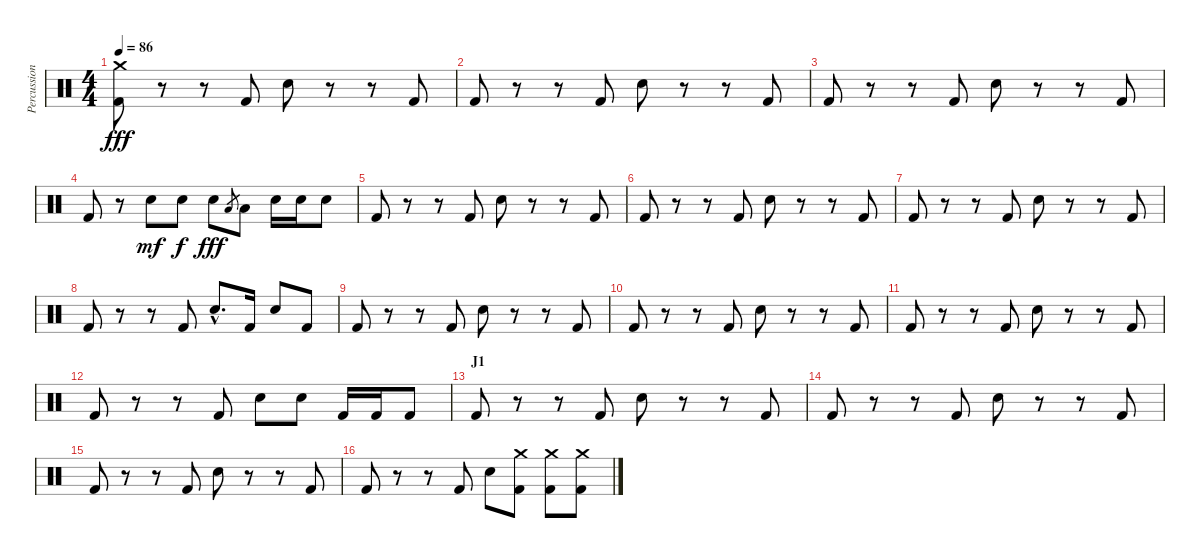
\track ("Percussion" "Percussion") {instrument percussion}
\staff {score}
\articulation defaults
\ts (4 4)
\tempo 86
\clef neutral
\ks c
("Kick (hit) 2" "Crash medium (hit)").8{dy fff} r.8 r.8 "Kick (hit) 2".8 "Electric Snare (hit)".8 r.8 r.8 "Kick (hit) 2".8 |
"Kick (hit) 2".8 r.8 r.8 "Kick (hit) 2".8 "Electric Snare (hit)".8 r.8 r.8 "Kick (hit) 2".8 |
"Kick (hit) 2".8 r.8 r.8 "Kick (hit) 2".8 "Electric Snare (hit)".8 r.8 r.8 "Kick (hit) 2".8 |
"Kick (hit) 2".8 r.8 "Electric Snare (hit)".8{dy mf} "Electric Snare (hit)".8{dy f} "Electric Snare (hit)".8{dy fff} "Low Tom (hit)".8{gr} "Low Tom (hit)".8 "Electric Snare (hit)".16 "Electric Snare (hit)".16 "Electric Snare (hit)".8 |
"Kick (hit) 2".8 r.8 r.8 "Kick (hit) 2".8 "Electric Snare (hit)".8 r.8 r.8 "Kick (hit) 2".8 |
"Kick (hit) 2".8 r.8 r.8 "Kick (hit) 2".8 "Electric Snare (hit)".8 r.8 r.8 "Kick (hit) 2".8 |
"Kick (hit) 2".8 r.8 r.8 "Kick (hit) 2".8 "Electric Snare (hit)".8 r.8 r.8 "Kick (hit) 2".8 |
"Kick (hit) 2".8 r.8 r.8 "Kick (hit) 2".8 "Electric Snare (hit)"{hac}.8{d} "Kick (hit) 2".16 "Electric Snare (hit)".8 "Kick (hit) 2".8 |
"Kick (hit) 2".8 r.8 r.8 "Kick (hit) 2".8 "Electric Snare (hit)".8 r.8 r.8 "Kick (hit) 2".8 |
"Kick (hit) 2".8 r.8 r.8 "Kick (hit) 2".8 "Electric Snare (hit)".8 r.8 r.8 "Kick (hit) 2".8 |
"Kick (hit) 2".8 r.8 r.8 "Kick (hit) 2".8 "Electric Snare (hit)".8 r.8 r.8 "Kick (hit) 2".8 |
"Kick (hit) 2".8 r.8 r.8 "Kick (hit) 2".8 "Electric Snare (hit)".8 "Electric Snare (hit)".8 "Kick (hit) 2".16 "Kick (hit) 2".16 "Kick (hit) 2".8 |
\section ("" "J1")
"Kick (hit) 2".8 r.8 r.8 "Kick (hit) 2".8 "Electric Snare (hit)".8 r.8 r.8 "Kick (hit) 2".8 |
"Kick (hit) 2".8 r.8 r.8 "Kick (hit) 2".8 "Electric Snare (hit)".8 r.8 r.8 "Kick (hit) 2".8 |
"Kick (hit) 2".8 r.8 r.8 "Kick (hit) 2".8 "Electric Snare (hit)".8 r.8 r.8 "Kick (hit) 2".8 |
"Kick (hit) 2".8 r.8 r.8 "Kick (hit) 2".8 "Electric Snare (hit)".8 ("Kick (hit) 2" "Crash medium (hit)").8 ("Kick (hit) 2" "Crash medium (hit)").8 ("Kick (hit) 2" "Crash medium (hit)").8
